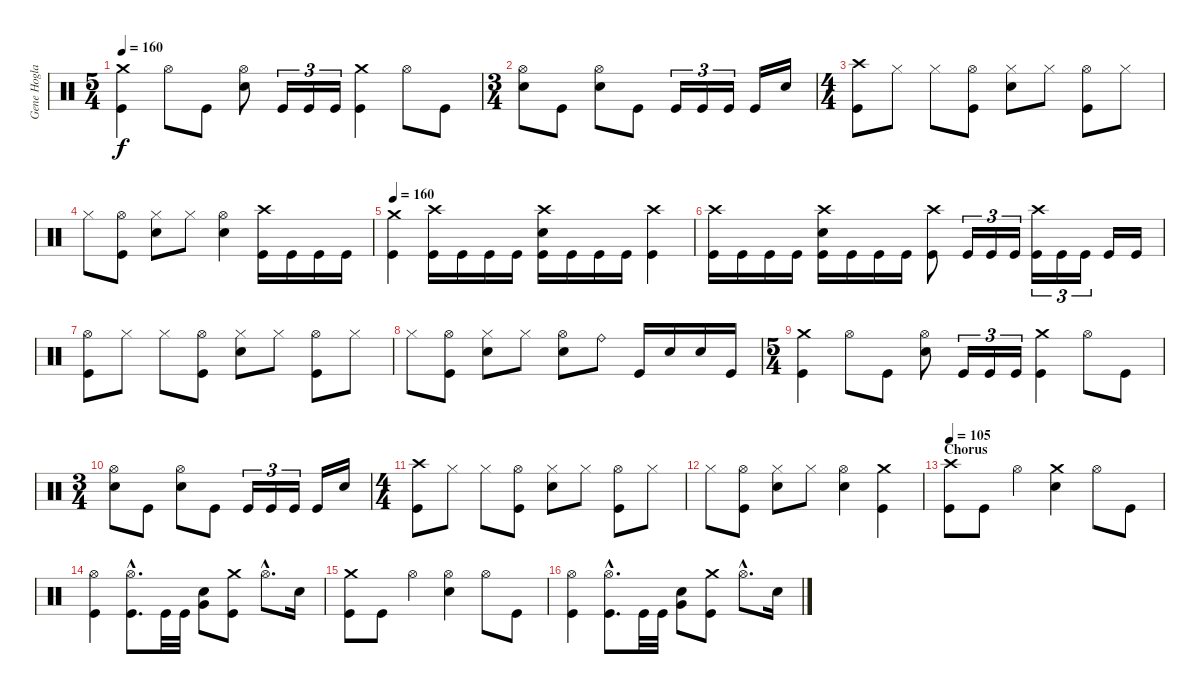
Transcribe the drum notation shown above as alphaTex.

\track ("Gene Hoglan" "Gene Hogla") {instrument percussion}
\staff {score}
\articulation defaults
\ts (5 4)
\tempo 160
\clef neutral
\ks c
("Crash medium (hit)" "Kick (hit)").4{dy f} "Hi-Hat (open)".8 "Kick (hit)".8 ("Hi-Hat (open)" "Electric Snare (hit)").8 "Kick (hit)".16{tu (3 2)} "Kick (hit)".16{tu (3 2)} "Kick (hit)".16{tu (3 2)} ("Crash medium (hit)" "Kick (hit)").4 "Hi-Hat (open)".8 "Kick (hit)".8 |
\ts (3 4)
("Hi-Hat (open)" "Electric Snare (hit)").8 "Kick (hit)".8 ("Hi-Hat (open)" "Electric Snare (hit)").8 "Kick (hit)".8 "Kick (hit)".16{tu (3 2)} "Kick (hit)".16{tu (3 2)} "Kick (hit)".16{tu (3 2)} "Kick (hit)".16 "Electric Snare (hit)".16 |
\ts (4 4)
("Crash high (hit)" "Kick (hit)").8 "Hi-Hat (closed)".8 "Hi-Hat (closed)".8 ("Hi-Hat (open)" "Kick (hit)").8 ("Hi-Hat (closed)" "Electric Snare (hit)").8 "Hi-Hat (closed)".8 ("Hi-Hat (open)" "Kick (hit)").8 "Hi-Hat (closed)".8 |
"Hi-Hat (closed)".8 ("Hi-Hat (open)" "Kick (hit)").8 ("Hi-Hat (closed)" "Electric Snare (hit)").8 "Hi-Hat (closed)".8 ("Hi-Hat (open)" "Electric Snare (hit)").4 ("Crash high (hit)" "Kick (hit)").16 "Kick (hit)".16 "Kick (hit)".16 "Kick (hit)".16 |
\tempo 160
("Crash medium (hit)" "Kick (hit)").4 ("Crash high (hit)" "Kick (hit)").16 "Kick (hit)".16 "Kick (hit)".16 "Kick (hit)".16 ("Crash high (hit)" "Electric Snare (hit)" "Kick (hit)").16 "Kick (hit)".16 "Kick (hit)".16 "Kick (hit)".16 ("Crash high (hit)" "Kick (hit)").4 |
("Crash high (hit)" "Kick (hit)").16 "Kick (hit)".16 "Kick (hit)".16 "Kick (hit)".16 ("Crash high (hit)" "Electric Snare (hit)" "Kick (hit)").16 "Kick (hit)".16 "Kick (hit)".16 "Kick (hit)".16 ("Crash high (hit)" "Kick (hit)").8 "Kick (hit)".16{tu (3 2)} "Kick (hit)".16{tu (3 2)} "Kick (hit)".16{tu (3 2)} ("Crash high (hit)" "Kick (hit)").16{tu (3 2)} "Kick (hit)".16{tu (3 2)} "Kick (hit)".16{tu (3 2)} "Kick (hit)".16 "Kick (hit)".16 |
("Hi-Hat (open)" "Kick (hit)").8 "Hi-Hat (closed)".8 "Hi-Hat (closed)".8 ("Hi-Hat (open)" "Kick (hit)").8 ("Hi-Hat (closed)" "Electric Snare (hit)").8 "Hi-Hat (closed)".8 ("Hi-Hat (open)" "Kick (hit)").8 "Hi-Hat (closed)".8 |
"Hi-Hat (closed)".8 ("Hi-Hat (open)" "Kick (hit)").8 ("Hi-Hat (closed)" "Electric Snare (hit)").8 "Hi-Hat (closed)".8 ("Hi-Hat (open)" "Electric Snare (hit)").8 "Ride (bell)".8 "Kick (hit)".16 "Electric Snare (hit)".16 "Electric Snare (hit)".16 "Kick (hit)".16 |
\ts (5 4)
("Crash medium (hit)" "Kick (hit)").4 "Hi-Hat (open)".8 "Kick (hit)".8 ("Hi-Hat (open)" "Electric Snare (hit)").8 "Kick (hit)".16{tu (3 2)} "Kick (hit)".16{tu (3 2)} "Kick (hit)".16{tu (3 2)} ("Crash medium (hit)" "Kick (hit)").4 "Hi-Hat (open)".8 "Kick (hit)".8 |
\ts (3 4)
("Hi-Hat (open)" "Electric Snare (hit)").8 "Kick (hit)".8 ("Hi-Hat (open)" "Electric Snare (hit)").8 "Kick (hit)".8 "Kick (hit)".16{tu (3 2)} "Kick (hit)".16{tu (3 2)} "Kick (hit)".16{tu (3 2)} "Kick (hit)".16 "Electric Snare (hit)".16 |
\ts (4 4)
("Crash high (hit)" "Kick (hit)").8 "Hi-Hat (closed)".8 "Hi-Hat (closed)".8 ("Hi-Hat (open)" "Kick (hit)").8 ("Hi-Hat (closed)" "Electric Snare (hit)").8 "Hi-Hat (closed)".8 ("Hi-Hat (open)" "Kick (hit)").8 "Hi-Hat (closed)".8 |
"Hi-Hat (closed)".8 ("Hi-Hat (open)" "Kick (hit)").8 ("Hi-Hat (closed)" "Electric Snare (hit)").8 "Hi-Hat (closed)".8 ("Hi-Hat (open)" "Electric Snare (hit)").4 ("Crash medium (hit)" "Kick (hit)").4 |
\section ("" "Chorus")
\tempo 105
("Crash high (hit)" "Kick (hit)").8 "Kick (hit)".8 "Hi-Hat (open)".4 ("Crash medium (hit)" "Electric Snare (hit)").4 "Hi-Hat (open)".8 "Kick (hit)".8 |
("Hi-Hat (open)" "Kick (hit)").4 ("Hi-Hat (open)"{hac} "Kick (hit)"{hac}).8{d} "Kick (hit)".32 "Kick (hit)".32 ("Very Low Tom (hit)" "Electric Snare (hit)").8 ("Crash medium (hit)" "Kick (hit)").8 "Hi-Hat (open)"{hac}.8{d} "Electric Snare (hit)".16 |
("Crash medium (hit)" "Kick (hit)").8 "Kick (hit)".8 "Hi-Hat (open)".4 ("Hi-Hat (open)" "Electric Snare (hit)").4 "Hi-Hat (open)".8 "Kick (hit)".8 |
("Hi-Hat (open)" "Kick (hit)").4 ("Hi-Hat (open)"{hac} "Kick (hit)"{hac}).8{d} "Kick (hit)".32 "Kick (hit)".32 ("Very Low Tom (hit)" "Electric Snare (hit)").8 ("Crash medium (hit)" "Kick (hit)").8 "Hi-Hat (open)"{hac}.8{d} "Electric Snare (hit)".16
